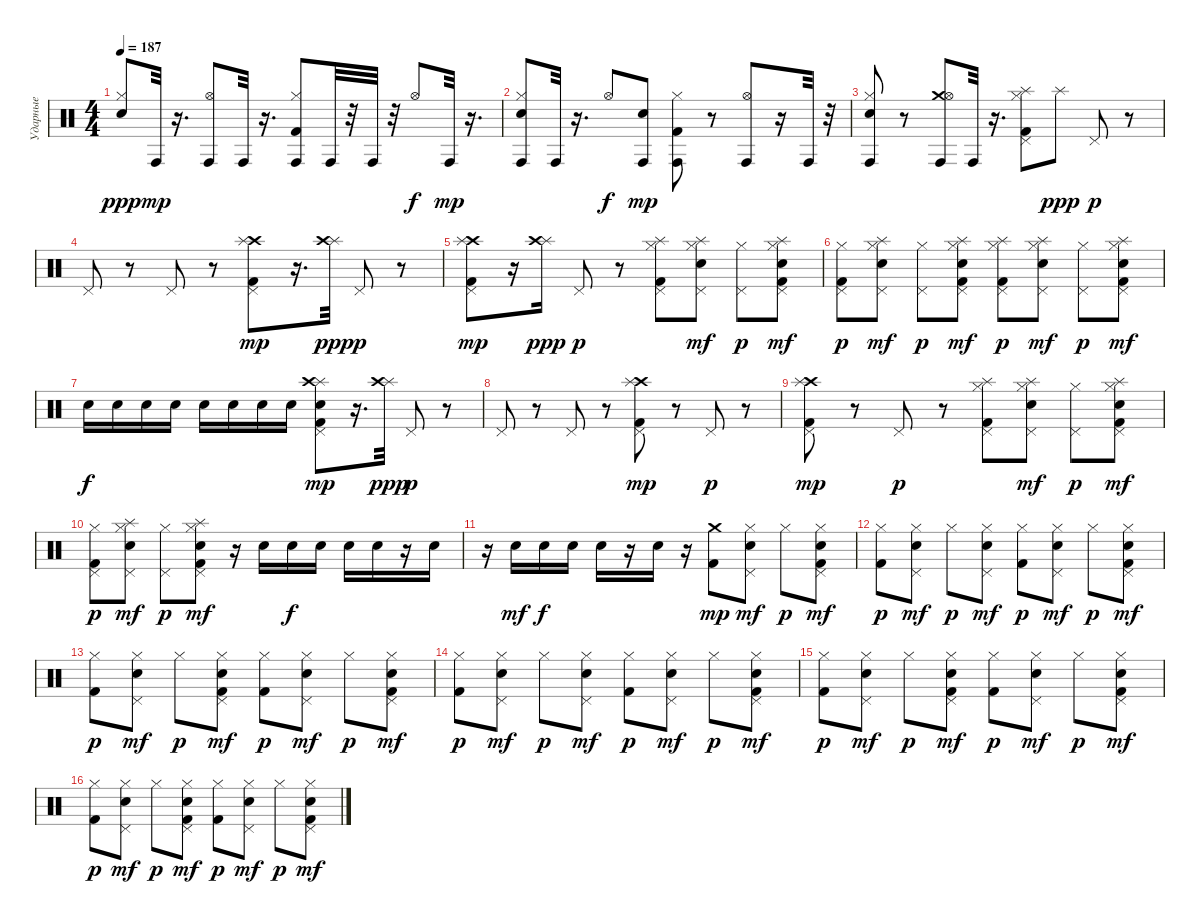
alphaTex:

\track ("Ударные" "Ударные") {instrument percussion}
\staff {score}
\articulation defaults
\ts (4 4)
\tempo 187
\clef neutral
\ks c
("Hi-Hat (closed)" "Electric Snare (hit)").8{dy ppp} "Conga high (hit)".32{dy mp} r.16{d} ("Hi-Hat (open)" "Conga high (hit)").8 "Conga high (hit)".32 r.16{d} ("Hi-Hat (closed)" "Kick (hit) 2" "Conga high (hit)").8 "Conga high (hit)".32 r.32 "Conga high (hit)".32 r.32 "Hi-Hat (open)".8{dy f} "Conga high (hit)".32{dy mp} r.16{d} |
("Hi-Hat (closed)" "Electric Snare (hit)" "Conga high (hit)").8 "Conga high (hit)".32 r.16{d} "Hi-Hat (open)".8{dy f} ("Electric Snare (hit)" "Conga high (hit)").8{dy mp} ("Hi-Hat (closed)" "Kick (hit) 2" "Conga high (hit)").8 r.8 ("Hi-Hat (open)" "Conga high (hit)").8 r.16 "Conga high (hit)".32 r.32 |
("Hi-Hat (closed)" "Electric Snare (hit)" "Conga high (hit)").8 r.8 ("Crash medium (hit)" "Hi-Hat (open)" "Conga high (hit)").8 "Conga high (hit)".32 r.16{d} ("Hi-Hat (closed)" "Splash (hit)" "Pedal Hi-Hat (hit)" "Kick (hit) 2").8 "Splash (hit)".8{dy ppp} "Pedal Hi-Hat (hit)".8{dy p} r.8 |
"Pedal Hi-Hat (hit)".8 r.8 "Pedal Hi-Hat (hit)".8 r.8 ("Crash high (hit)" "Splash (hit)" "Pedal Hi-Hat (hit)" "Kick (hit) 2").8{dy mp} r.16{d} ("Splash (hit)" "Crash high (hit)").32{dy ppp} "Pedal Hi-Hat (hit)".8{dy p} r.8 |
("Crash high (hit)" "Splash (hit)" "Pedal Hi-Hat (hit)" "Kick (hit) 2").8{dy mp} r.16 ("Splash (hit)" "Crash high (hit)").16{dy ppp} "Pedal Hi-Hat (hit)".8{dy p} r.8 ("Splash (hit)" "Pedal Hi-Hat (hit)" "Hi-Hat (closed)" "Kick (hit) 2").8 ("Splash (hit)" "Pedal Hi-Hat (hit)" "Hi-Hat (closed)" "Electric Snare (hit)").8{dy mf} ("Pedal Hi-Hat (hit)" "Hi-Hat (closed)").8{dy p} ("Splash (hit)" "Pedal Hi-Hat (hit)" "Hi-Hat (closed)" "Electric Snare (hit)" "Kick (hit) 2").8{dy mf} |
("Pedal Hi-Hat (hit)" "Hi-Hat (closed)" "Kick (hit) 2").8{dy p} ("Splash (hit)" "Pedal Hi-Hat (hit)" "Hi-Hat (closed)" "Electric Snare (hit)").8{dy mf} ("Pedal Hi-Hat (hit)" "Hi-Hat (closed)").8{dy p} ("Splash (hit)" "Pedal Hi-Hat (hit)" "Hi-Hat (closed)" "Kick (hit) 2" "Electric Snare (hit)").8{dy mf} ("Splash (hit)" "Pedal Hi-Hat (hit)" "Hi-Hat (closed)" "Kick (hit) 2").8{dy p} ("Splash (hit)" "Pedal Hi-Hat (hit)" "Hi-Hat (closed)" "Electric Snare (hit)").8{dy mf} ("Pedal Hi-Hat (hit)" "Hi-Hat (closed)").8{dy p} ("Splash (hit)" "Pedal Hi-Hat (hit)" "Hi-Hat (closed)" "Electric Snare (hit)" "Kick (hit) 2").8{dy mf} |
"Electric Snare (hit)".16{dy f} "Electric Snare (hit)".16 "Electric Snare (hit)".16 "Electric Snare (hit)".16 "Electric Snare (hit)".16 "Electric Snare (hit)".16 "Electric Snare (hit)".16 "Electric Snare (hit)".16 ("Electric Snare (hit)" "Splash (hit)" "Crash high (hit)" "Pedal Hi-Hat (hit)" "Kick (hit) 2").8{dy mp} r.16{d} ("Splash (hit)" "Crash high (hit)").32{dy ppp} "Pedal Hi-Hat (hit)".8{dy p} r.8 |
"Pedal Hi-Hat (hit)".8 r.8 "Pedal Hi-Hat (hit)".8 r.8 ("Crash high (hit)" "Splash (hit)" "Pedal Hi-Hat (hit)" "Kick (hit) 2").8{dy mp} r.8 "Pedal Hi-Hat (hit)".8{dy p} r.8 |
("Crash high (hit)" "Splash (hit)" "Pedal Hi-Hat (hit)" "Kick (hit) 2").8{dy mp} r.8 "Pedal Hi-Hat (hit)".8{dy p} r.8 ("Splash (hit)" "Pedal Hi-Hat (hit)" "Hi-Hat (closed)" "Kick (hit) 2").8 ("Splash (hit)" "Pedal Hi-Hat (hit)" "Hi-Hat (closed)" "Electric Snare (hit)").8{dy mf} ("Pedal Hi-Hat (hit)" "Hi-Hat (closed)").8{dy p} ("Splash (hit)" "Pedal Hi-Hat (hit)" "Hi-Hat (closed)" "Electric Snare (hit)" "Kick (hit) 2").8{dy mf} |
("Pedal Hi-Hat (hit)" "Hi-Hat (closed)" "Kick (hit) 2").8{dy p} ("Splash (hit)" "Pedal Hi-Hat (hit)" "Hi-Hat (closed)" "Electric Snare (hit)").8{dy mf} ("Pedal Hi-Hat (hit)" "Hi-Hat (closed)").8{dy p} ("Splash (hit)" "Pedal Hi-Hat (hit)" "Hi-Hat (closed)" "Kick (hit) 2" "Electric Snare (hit)").8{dy mf} r.16 "Electric Snare (hit)".16 "Electric Snare (hit)".16{dy f} "Electric Snare (hit)".16 "Electric Snare (hit)".16 "Electric Snare (hit)".16 r.16 "Electric Snare (hit)".16 |
r.16 "Electric Snare (hit)".16{dy mf} "Electric Snare (hit)".16{dy f} "Electric Snare (hit)".16 "Electric Snare (hit)".16 r.16 "Electric Snare (hit)".16 r.16 ("Crash medium (hit)" "Kick (hit) 2").8{dy mp} ("Pedal Hi-Hat (hit)" "Hi-Hat (closed)" "Electric Snare (hit)").8{dy mf} "Hi-Hat (closed)".8{dy p} ("Pedal Hi-Hat (hit)" "Hi-Hat (closed)" "Electric Snare (hit)" "Kick (hit) 2").8{dy mf} |
("Hi-Hat (closed)" "Kick (hit) 2").8{dy p} ("Pedal Hi-Hat (hit)" "Hi-Hat (closed)" "Electric Snare (hit)").8{dy mf} "Hi-Hat (closed)".8{dy p} ("Pedal Hi-Hat (hit)" "Hi-Hat (closed)" "Electric Snare (hit)").8{dy mf} ("Hi-Hat (closed)" "Kick (hit) 2").8{dy p} ("Pedal Hi-Hat (hit)" "Hi-Hat (closed)" "Electric Snare (hit)").8{dy mf} "Hi-Hat (closed)".8{dy p} ("Pedal Hi-Hat (hit)" "Hi-Hat (closed)" "Electric Snare (hit)" "Kick (hit) 2").8{dy mf} |
("Hi-Hat (closed)" "Kick (hit) 2").8{dy p} ("Pedal Hi-Hat (hit)" "Hi-Hat (closed)" "Electric Snare (hit)").8{dy mf} "Hi-Hat (closed)".8{dy p} ("Pedal Hi-Hat (hit)" "Hi-Hat (closed)" "Kick (hit) 2" "Electric Snare (hit)").8{dy mf} ("Hi-Hat (closed)" "Kick (hit) 2").8{dy p} ("Pedal Hi-Hat (hit)" "Hi-Hat (closed)" "Electric Snare (hit)").8{dy mf} "Hi-Hat (closed)".8{dy p} ("Pedal Hi-Hat (hit)" "Hi-Hat (closed)" "Electric Snare (hit)" "Kick (hit) 2").8{dy mf} |
("Hi-Hat (closed)" "Kick (hit) 2").8{dy p} ("Pedal Hi-Hat (hit)" "Hi-Hat (closed)" "Electric Snare (hit)").8{dy mf} "Hi-Hat (closed)".8{dy p} ("Pedal Hi-Hat (hit)" "Hi-Hat (closed)" "Electric Snare (hit)").8{dy mf} ("Hi-Hat (closed)" "Kick (hit) 2").8{dy p} ("Pedal Hi-Hat (hit)" "Hi-Hat (closed)" "Electric Snare (hit)").8{dy mf} "Hi-Hat (closed)".8{dy p} ("Pedal Hi-Hat (hit)" "Hi-Hat (closed)" "Electric Snare (hit)" "Kick (hit) 2").8{dy mf} |
("Hi-Hat (closed)" "Kick (hit) 2").8{dy p} ("Pedal Hi-Hat (hit)" "Hi-Hat (closed)" "Electric Snare (hit)").8{dy mf} "Hi-Hat (closed)".8{dy p} ("Pedal Hi-Hat (hit)" "Hi-Hat (closed)" "Kick (hit) 2" "Electric Snare (hit)").8{dy mf} ("Hi-Hat (closed)" "Kick (hit) 2").8{dy p} ("Pedal Hi-Hat (hit)" "Hi-Hat (closed)" "Electric Snare (hit)").8{dy mf} "Hi-Hat (closed)".8{dy p} ("Pedal Hi-Hat (hit)" "Hi-Hat (closed)" "Electric Snare (hit)" "Kick (hit) 2").8{dy mf} |
("Hi-Hat (closed)" "Kick (hit) 2").8{dy p} ("Pedal Hi-Hat (hit)" "Hi-Hat (closed)" "Electric Snare (hit)").8{dy mf} "Hi-Hat (closed)".8{dy p} ("Pedal Hi-Hat (hit)" "Hi-Hat (closed)" "Kick (hit) 2" "Electric Snare (hit)").8{dy mf} ("Hi-Hat (closed)" "Kick (hit) 2").8{dy p} ("Pedal Hi-Hat (hit)" "Hi-Hat (closed)" "Electric Snare (hit)").8{dy mf} "Hi-Hat (closed)".8{dy p} ("Pedal Hi-Hat (hit)" "Hi-Hat (closed)" "Electric Snare (hit)" "Kick (hit) 2").8{dy mf}
